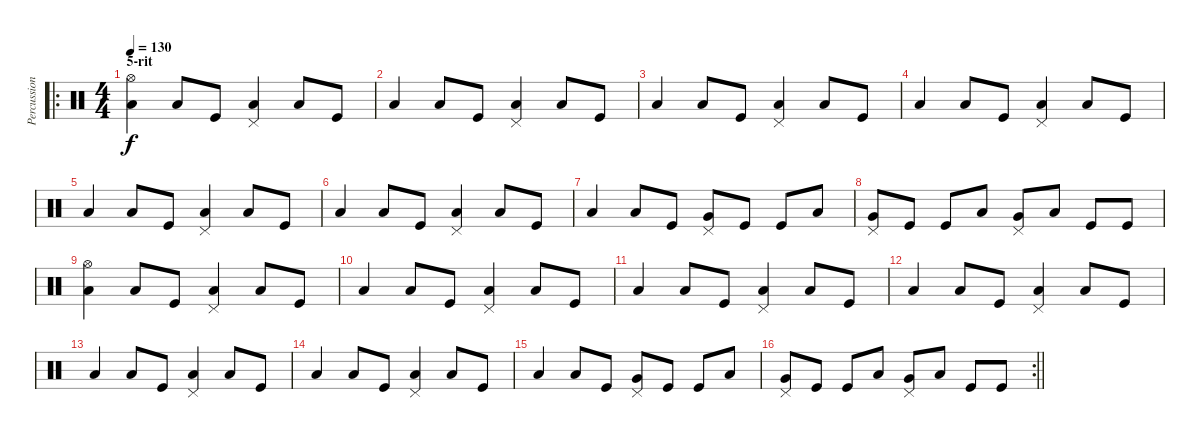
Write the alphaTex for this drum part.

\track ("Percussioni" "Percussion") {instrument percussion}
\staff {score}
\articulation defaults
\ro
\ts (4 4)
\section ("" "5-rit")
\tempo 130
\clef neutral
\ks c
("Hi-Hat (open)" "Low Tom (hit)").4{dy f} "Low Floor Tom (hit)".8 "Kick (hit)".8 ("Low Floor Tom (hit)" "Pedal Hi-Hat (hit)").4 "Low Floor Tom (hit)".8 "Kick (hit)".8 |
"Low Floor Tom (hit)".4 "Low Floor Tom (hit)".8 "Kick (hit)".8 ("Low Floor Tom (hit)" "Pedal Hi-Hat (hit)").4 "Low Floor Tom (hit)".8 "Kick (hit)".8 |
"Low Floor Tom (hit)".4 "Low Floor Tom (hit)".8 "Kick (hit)".8 ("Low Floor Tom (hit)" "Pedal Hi-Hat (hit)").4 "Low Floor Tom (hit)".8 "Kick (hit)".8 |
"Low Floor Tom (hit)".4 "Low Floor Tom (hit)".8 "Kick (hit)".8 ("Low Floor Tom (hit)" "Pedal Hi-Hat (hit)").4 "Low Floor Tom (hit)".8 "Kick (hit)".8 |
"Low Floor Tom (hit)".4 "Low Floor Tom (hit)".8 "Kick (hit)".8 ("Low Floor Tom (hit)" "Pedal Hi-Hat (hit)").4 "Low Floor Tom (hit)".8 "Kick (hit)".8 |
"Low Floor Tom (hit)".4 "Low Floor Tom (hit)".8 "Kick (hit)".8 ("Low Floor Tom (hit)" "Pedal Hi-Hat (hit)").4 "Low Floor Tom (hit)".8 "Kick (hit)".8 |
"Low Floor Tom (hit)".4 "Low Floor Tom (hit)".8 "Kick (hit)".8 ("Very Low Tom (hit)" "Pedal Hi-Hat (hit)").8 "Kick (hit)".8 "Kick (hit)".8 "Low Floor Tom (hit)".8 |
("Very Low Tom (hit)" "Pedal Hi-Hat (hit)").8 "Kick (hit)".8 "Kick (hit)".8 "Low Floor Tom (hit)".8 ("Very Low Tom (hit)" "Pedal Hi-Hat (hit)").8 "Low Floor Tom (hit)".8 "Kick (hit)".8 "Kick (hit)".8 |
("Hi-Hat (open)" "Low Tom (hit)").4 "Low Floor Tom (hit)".8 "Kick (hit)".8 ("Low Floor Tom (hit)" "Pedal Hi-Hat (hit)").4 "Low Floor Tom (hit)".8 "Kick (hit)".8 |
"Low Floor Tom (hit)".4 "Low Floor Tom (hit)".8 "Kick (hit)".8 ("Low Floor Tom (hit)" "Pedal Hi-Hat (hit)").4 "Low Floor Tom (hit)".8 "Kick (hit)".8 |
"Low Floor Tom (hit)".4 "Low Floor Tom (hit)".8 "Kick (hit)".8 ("Low Floor Tom (hit)" "Pedal Hi-Hat (hit)").4 "Low Floor Tom (hit)".8 "Kick (hit)".8 |
"Low Floor Tom (hit)".4 "Low Floor Tom (hit)".8 "Kick (hit)".8 ("Low Floor Tom (hit)" "Pedal Hi-Hat (hit)").4 "Low Floor Tom (hit)".8 "Kick (hit)".8 |
"Low Floor Tom (hit)".4 "Low Floor Tom (hit)".8 "Kick (hit)".8 ("Low Floor Tom (hit)" "Pedal Hi-Hat (hit)").4 "Low Floor Tom (hit)".8 "Kick (hit)".8 |
"Low Floor Tom (hit)".4 "Low Floor Tom (hit)".8 "Kick (hit)".8 ("Low Floor Tom (hit)" "Pedal Hi-Hat (hit)").4 "Low Floor Tom (hit)".8 "Kick (hit)".8 |
"Low Floor Tom (hit)".4 "Low Floor Tom (hit)".8 "Kick (hit)".8 ("Very Low Tom (hit)" "Pedal Hi-Hat (hit)").8 "Kick (hit)".8 "Kick (hit)".8 "Low Floor Tom (hit)".8 |
\rc 2
\barLineRight lightlight
("Very Low Tom (hit)" "Pedal Hi-Hat (hit)").8 "Kick (hit)".8 "Kick (hit)".8 "Low Floor Tom (hit)".8 ("Very Low Tom (hit)" "Pedal Hi-Hat (hit)").8 "Low Floor Tom (hit)".8 "Kick (hit)".8 "Kick (hit)".8
